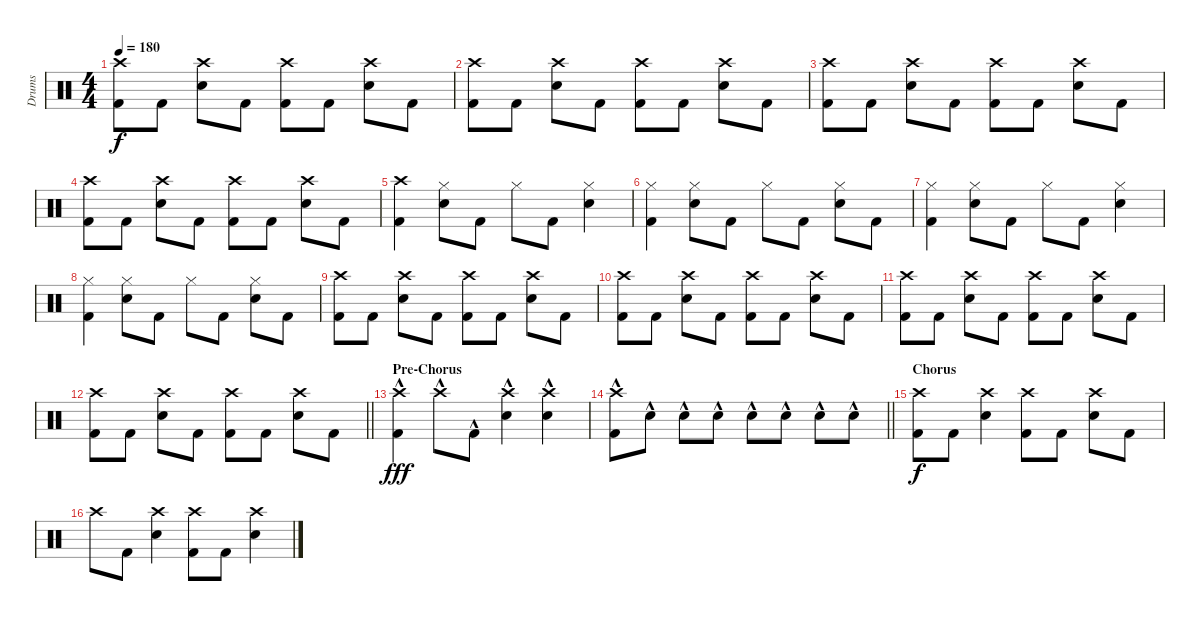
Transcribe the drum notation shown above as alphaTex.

\track ("Drums" "Drums") {instrument percussion}
\staff {score}
\articulation defaults
\ts (4 4)
\tempo 180
\clef neutral
\ks c
("Crash high (hit)" "Kick (hit) 2").8{dy f} "Kick (hit) 2".8 ("Crash high (hit)" "Snare (hit) 2").8 "Kick (hit) 2".8 ("Crash high (hit)" "Kick (hit) 2").8 "Kick (hit) 2".8 ("Crash high (hit)" "Snare (hit) 2").8 "Kick (hit) 2".8 |
("Crash high (hit)" "Kick (hit) 2").8 "Kick (hit) 2".8 ("Crash high (hit)" "Snare (hit) 2").8 "Kick (hit) 2".8 ("Crash high (hit)" "Kick (hit) 2").8 "Kick (hit) 2".8 ("Crash high (hit)" "Snare (hit) 2").8 "Kick (hit) 2".8 |
("Crash high (hit)" "Kick (hit) 2").8 "Kick (hit) 2".8 ("Crash high (hit)" "Snare (hit) 2").8 "Kick (hit) 2".8 ("Crash high (hit)" "Kick (hit) 2").8 "Kick (hit) 2".8 ("Crash high (hit)" "Snare (hit) 2").8 "Kick (hit) 2".8 |
("Crash high (hit)" "Kick (hit) 2").8 "Kick (hit) 2".8 ("Crash high (hit)" "Snare (hit) 2").8 "Kick (hit) 2".8 ("Crash high (hit)" "Kick (hit) 2").8 "Kick (hit) 2".8 ("Crash high (hit)" "Snare (hit) 2").8 "Kick (hit) 2".8 |
("Crash high (hit)" "Kick (hit) 2").4 ("Hi-Hat (closed)" "Snare (hit) 2").8 "Kick (hit) 2".8 "Hi-Hat (closed)".8 "Kick (hit) 2".8 ("Hi-Hat (closed)" "Snare (hit) 2").4 |
("Hi-Hat (closed)" "Kick (hit) 2").4 ("Hi-Hat (closed)" "Snare (hit) 2").8 "Kick (hit) 2".8 "Hi-Hat (closed)".8 "Kick (hit) 2".8 ("Hi-Hat (closed)" "Snare (hit) 2").8 "Kick (hit) 2".8 |
("Hi-Hat (closed)" "Kick (hit) 2").4 ("Hi-Hat (closed)" "Snare (hit) 2").8 "Kick (hit) 2".8 "Hi-Hat (closed)".8 "Kick (hit) 2".8 ("Hi-Hat (closed)" "Snare (hit) 2").4 |
("Hi-Hat (closed)" "Kick (hit) 2").4 ("Hi-Hat (closed)" "Snare (hit) 2").8 "Kick (hit) 2".8 "Hi-Hat (closed)".8 "Kick (hit) 2".8 ("Hi-Hat (closed)" "Snare (hit) 2").8 "Kick (hit) 2".8 |
("Crash high (hit)" "Kick (hit) 2").8 "Kick (hit) 2".8 ("Crash high (hit)" "Snare (hit) 2").8 "Kick (hit) 2".8 ("Crash high (hit)" "Kick (hit) 2").8 "Kick (hit) 2".8 ("Crash high (hit)" "Snare (hit) 2").8 "Kick (hit) 2".8 |
("Crash high (hit)" "Kick (hit) 2").8 "Kick (hit) 2".8 ("Crash high (hit)" "Snare (hit) 2").8 "Kick (hit) 2".8 ("Crash high (hit)" "Kick (hit) 2").8 "Kick (hit) 2".8 ("Crash high (hit)" "Snare (hit) 2").8 "Kick (hit) 2".8 |
("Crash high (hit)" "Kick (hit) 2").8 "Kick (hit) 2".8 ("Crash high (hit)" "Snare (hit) 2").8 "Kick (hit) 2".8 ("Crash high (hit)" "Kick (hit) 2").8 "Kick (hit) 2".8 ("Crash high (hit)" "Snare (hit) 2").8 "Kick (hit) 2".8 |
\barLineRight lightlight
("Crash high (hit)" "Kick (hit) 2").8 "Kick (hit) 2".8 ("Crash high (hit)" "Snare (hit) 2").8 "Kick (hit) 2".8 ("Crash high (hit)" "Kick (hit) 2").8 "Kick (hit) 2".8 ("Crash high (hit)" "Snare (hit) 2").8 "Kick (hit) 2".8 |
\section ("" "Pre-Chorus")
("Crash high (hit)" "Kick (hit) 2"{hac}).4{dy fff} "Crash high (hit)"{hac}.8 "Kick (hit) 2"{hac}.8 ("Crash high (hit)" "Snare (hit) 2"{hac}).4 ("Crash high (hit)" "Snare (hit) 2"{hac}).4 |
\barLineRight lightlight
("Crash high (hit)" "Kick (hit) 2"{hac}).8 "Snare (hit) 2"{hac}.8 "Snare (hit) 2"{hac}.8 "Snare (hit) 2"{hac}.8 "Snare (hit) 2"{hac}.8 "Snare (hit) 2"{hac}.8 "Snare (hit) 2"{hac}.8 "Snare (hit) 2"{hac}.8 |
\section ("" "Chorus")
("Crash high (hit)" "Kick (hit) 2").8{dy f} "Kick (hit) 2".8 ("Crash high (hit)" "Snare (hit) 2").4 ("Crash high (hit)" "Kick (hit) 2").8 "Kick (hit) 2".8 ("Crash high (hit)" "Snare (hit) 2").8 "Kick (hit) 2".8 |
"Crash high (hit)".8 "Kick (hit) 2".8 ("Crash high (hit)" "Snare (hit) 2").4 ("Crash high (hit)" "Kick (hit) 2").8 "Kick (hit) 2".8 ("Crash high (hit)" "Snare (hit) 2").4
